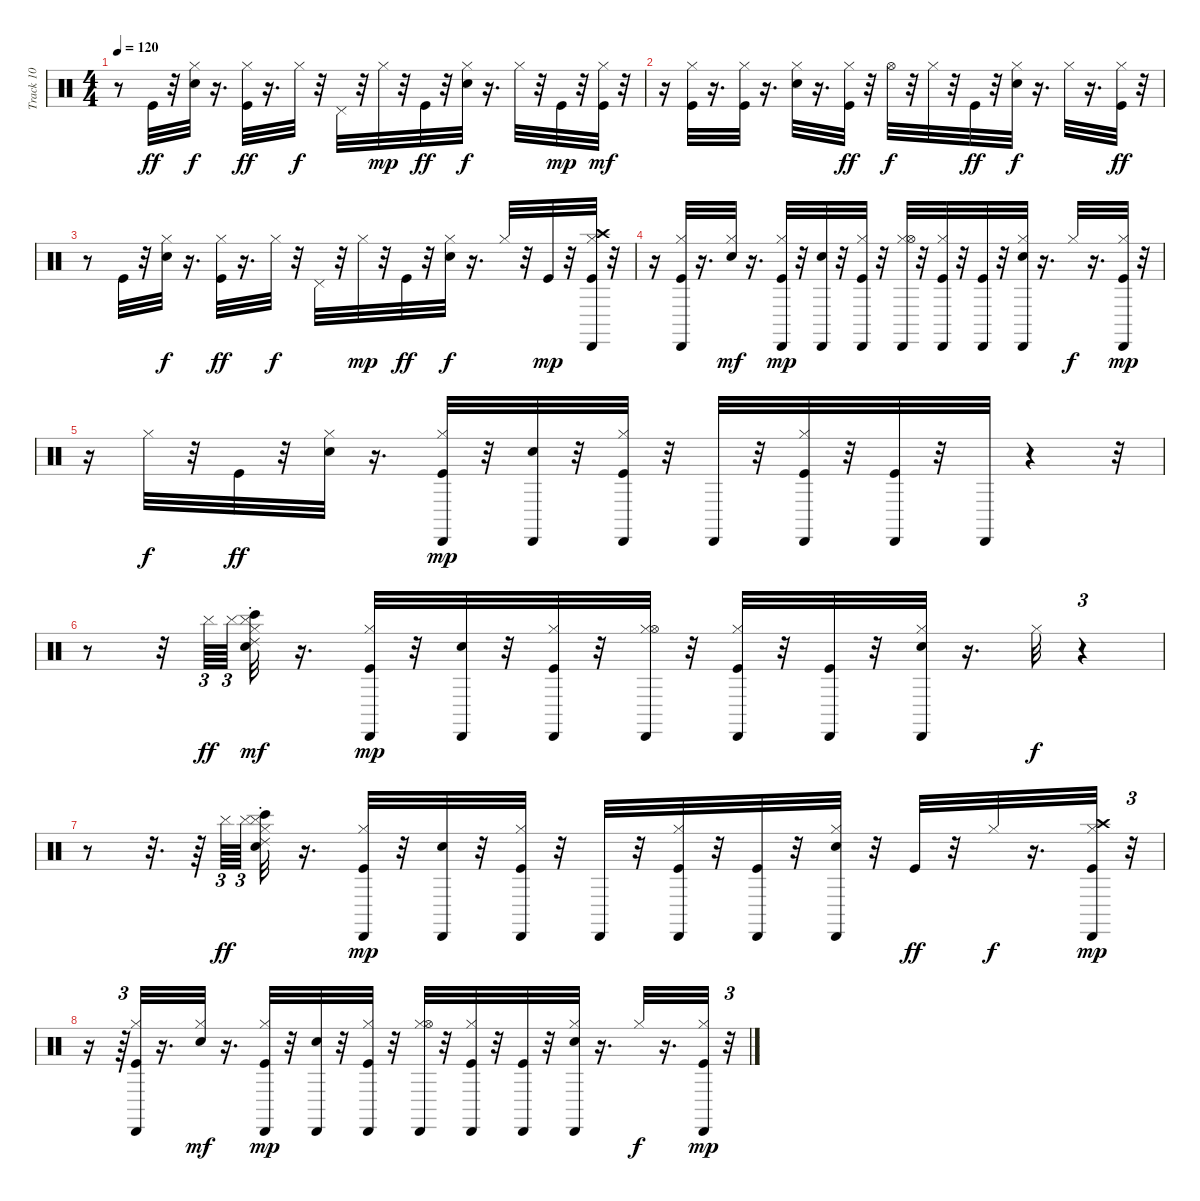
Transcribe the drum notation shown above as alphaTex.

\track ("Track 10" "Track 10") {instrument percussion}
\staff {score}
\articulation defaults
\ts (4 4)
\tempo 120
\clef neutral
\ks c
r.8{dy ff} "Kick (hit)".32 r.32 ("Electric Snare (hit)" "Hi-Hat (closed)").32{dy f} r.16{d} ("Kick (hit)" "Hi-Hat (closed)").32{dy ff} r.16{d} "Hi-Hat (closed)".32{dy f} r.32 "Pedal Hi-Hat (hit)".32 r.32 "Hi-Hat (closed)".32{dy mp} r.32 "Kick (hit)".32{dy ff} r.32 ("Electric Snare (hit)" "Hi-Hat (closed)").32{dy f} r.16{d} "Hi-Hat (closed)".32 r.32 "Kick (hit)".32{dy mp} r.32 ("Kick (hit)" "Hi-Hat (closed)").32{dy mf} r.32 |
r.16 ("Kick (hit)" "Hi-Hat (closed)").32 r.16{d} ("Kick (hit)" "Hi-Hat (closed)").32 r.16{d} ("Electric Snare (hit)" "Hi-Hat (closed)").32 r.16{d} ("Kick (hit)" "Hi-Hat (closed)").32{dy ff} r.32 "Hi-Hat (open)".32{dy f} r.32 "Hi-Hat (closed)".32 r.32 "Kick (hit)".32{dy ff} r.32 ("Electric Snare (hit)" "Hi-Hat (closed)").32{dy f} r.16{d} "Hi-Hat (closed)".32 r.16{d} ("Kick (hit)" "Hi-Hat (closed)").32{dy ff} r.32 |
r.8 "Kick (hit)".32 r.32 ("Electric Snare (hit)" "Hi-Hat (closed)").32{dy f} r.16{d} ("Kick (hit)" "Hi-Hat (closed)").32{dy ff} r.16{d} "Hi-Hat (closed)".32{dy f} r.32 "Pedal Hi-Hat (hit)".32 r.32 "Hi-Hat (closed)".32{dy mp} r.32 "Kick (hit)".32{dy ff} r.32 ("Electric Snare (hit)" "Hi-Hat (closed)").32{dy f} r.16{d} "Hi-Hat (closed)".32 r.32 "Kick (hit)".32{dy mp} r.32 ("Kick (hit)" "Hi-Hat (closed)" "Crash high (hit)" "Cabasa (hit)").32 r.32 |
r.16 ("Kick (hit)" "Hi-Hat (closed)" "Cabasa (hit)").32 r.16{d} ("Electric Snare (hit)" "Hi-Hat (closed)").32{dy mf} r.16{d} ("Kick (hit)" "Hi-Hat (closed)" "Cabasa (hit)").32{dy mp} r.32 ("Electric Snare (hit)" "Cabasa (hit)").32 r.32 ("Kick (hit)" "Hi-Hat (closed)" "Cabasa (hit)").32 r.32 ("Hi-Hat (closed)" "Hi-Hat (open)" "Cabasa (hit)").32 r.32 ("Kick (hit)" "Hi-Hat (closed)" "Cabasa (hit)").32 r.32 ("Kick (hit)" "Cabasa (hit)").32 r.32 ("Electric Snare (hit)" "Hi-Hat (closed)" "Cabasa (hit)").32 r.16{d} "Hi-Hat (closed)".32{dy f} r.16{d} ("Kick (hit)" "Hi-Hat (closed)" "Cabasa (hit)").32{dy mp} r.32 |
r.16 "Hi-Hat (closed)".32{dy f} r.32 "Kick (hit)".32{dy ff} r.32 ("Electric Snare (hit)" "Hi-Hat (closed)").32 r.16{d} ("Kick (hit)" "Hi-Hat (closed)" "Cabasa (hit)").32{dy mp} r.32 ("Electric Snare (hit)" "Cabasa (hit)").32 r.32 ("Kick (hit)" "Hi-Hat (closed)" "Cabasa (hit)").32 r.32 "Cabasa (hit)".32 r.32 ("Kick (hit)" "Hi-Hat (closed)" "Cabasa (hit)").32 r.32 ("Kick (hit)" "Cabasa (hit)").32 r.32 "Cabasa (hit)".32 r.4 r.32 |
r.8 r.32 "Cymbal (hit)".64{tu (3 2) dy ff} "Cymbal (hit)".64{tu (3 2) beam splitsecondary} ("Cymbal (hit)" "Bongo High (hit)" "Ride (choke) 2" "Electric Snare (hit)" "Hi-Hat (closed)").32{dy mf} r.16{d} ("Kick (hit)" "Hi-Hat (closed)" "Cabasa (hit)").32{dy mp} r.32 ("Electric Snare (hit)" "Cabasa (hit)").32 r.32 ("Kick (hit)" "Hi-Hat (closed)" "Cabasa (hit)").32 r.32 ("Hi-Hat (closed)" "Hi-Hat (open)" "Cabasa (hit)").32 r.32 ("Kick (hit)" "Hi-Hat (closed)" "Cabasa (hit)").32 r.32 ("Kick (hit)" "Cabasa (hit)").32 r.32 ("Electric Snare (hit)" "Hi-Hat (closed)" "Cabasa (hit)").32 r.16{d} "Hi-Hat (closed)".32{dy f} r.4{tu (3 2)} |
r.8 r.32{d} r.64 "Cymbal (hit)".64{tu (3 2) dy ff} "Cymbal (hit)".64{tu (3 2) beam splitsecondary} ("Cymbal (hit)" "Bongo High (hit)" "Ride (choke) 2" "Electric Snare (hit)" "Hi-Hat (closed)").32 r.16{d} ("Kick (hit)" "Hi-Hat (closed)" "Cabasa (hit)").32{dy mp} r.32 ("Electric Snare (hit)" "Cabasa (hit)").32 r.32 ("Kick (hit)" "Hi-Hat (closed)" "Cabasa (hit)").32 r.32 "Cabasa (hit)".32 r.32 ("Kick (hit)" "Hi-Hat (closed)" "Cabasa (hit)").32 r.32 ("Kick (hit)" "Cabasa (hit)").32 r.32 ("Electric Snare (hit)" "Hi-Hat (closed)" "Cabasa (hit)").32 r.32 "Kick (hit)".32{dy ff} r.32 "Hi-Hat (closed)".32{dy f} r.16{d} ("Kick (hit)" "Hi-Hat (closed)" "Crash high (hit)" "Cabasa (hit)").32{dy mp} r.32{tu (3 2)} |
r.16 r.64{tu (3 2)} ("Kick (hit)" "Hi-Hat (closed)" "Cabasa (hit)").32 r.16{d} ("Electric Snare (hit)" "Hi-Hat (closed)").32{dy mf} r.16{d} ("Kick (hit)" "Hi-Hat (closed)" "Cabasa (hit)").32{dy mp} r.32 ("Electric Snare (hit)" "Cabasa (hit)").32 r.32 ("Kick (hit)" "Hi-Hat (closed)" "Cabasa (hit)").32 r.32 ("Hi-Hat (closed)" "Hi-Hat (open)" "Cabasa (hit)").32 r.32 ("Kick (hit)" "Hi-Hat (closed)" "Cabasa (hit)").32 r.32 ("Kick (hit)" "Cabasa (hit)").32 r.32 ("Electric Snare (hit)" "Hi-Hat (closed)" "Cabasa (hit)").32 r.16{d} "Hi-Hat (closed)".32{dy f} r.16{d} ("Kick (hit)" "Hi-Hat (closed)" "Cabasa (hit)").32{dy mp} r.32{tu (3 2)}
